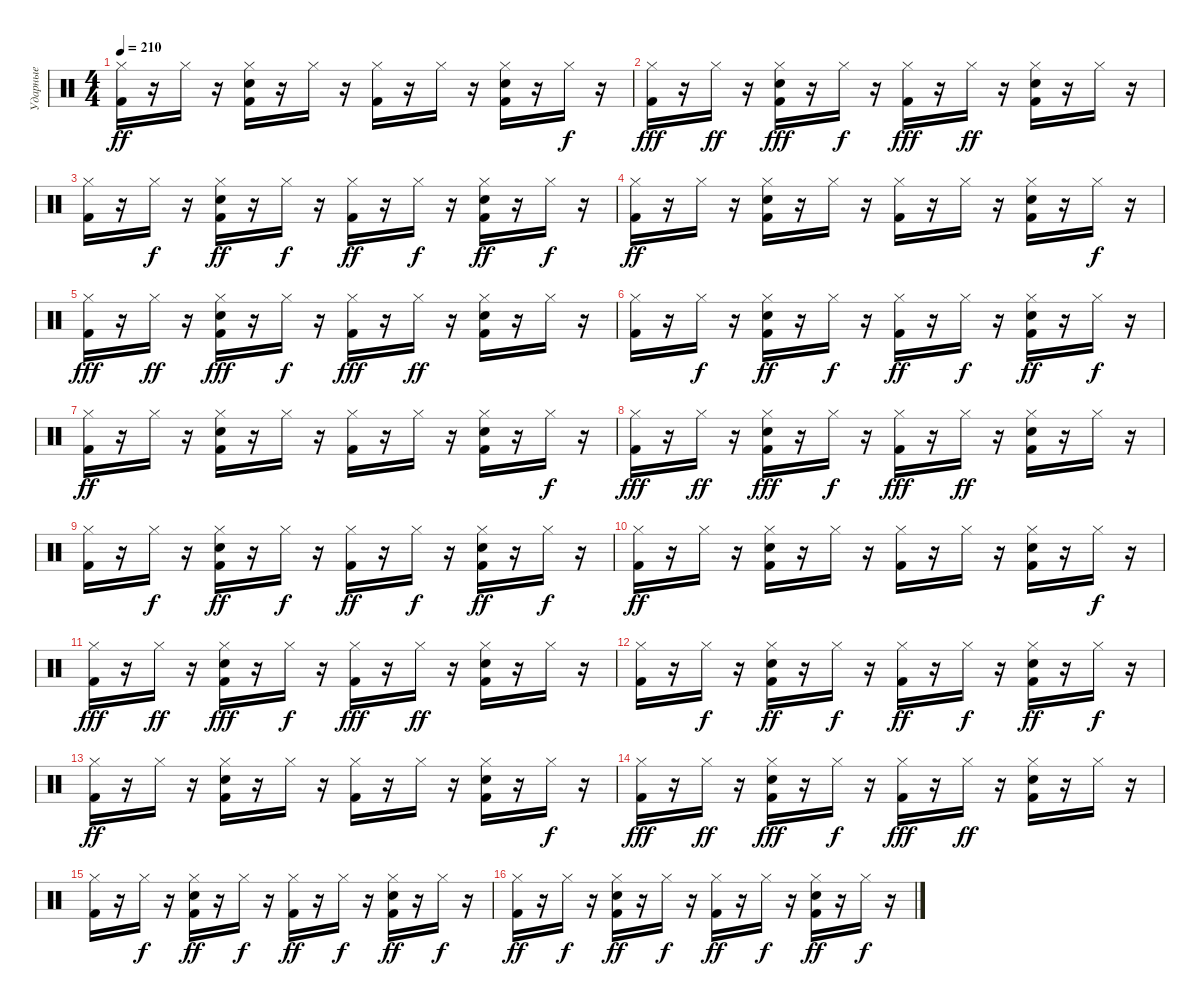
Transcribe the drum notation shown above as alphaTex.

\track ("Ударные" "Ударные") {instrument percussion}
\staff {score}
\articulation defaults
\ts (4 4)
\tempo 210
\clef neutral
\ks c
("Kick (hit) 2" "Hi-Hat (closed)").16{dy ff} r.16 "Hi-Hat (closed)".16 r.16 ("Kick (hit) 2" "Snare (hit) 2" "Hi-Hat (closed)").16 r.16 "Hi-Hat (closed)".16 r.16 ("Kick (hit) 2" "Hi-Hat (closed)").16 r.16 "Hi-Hat (closed)".16 r.16 ("Kick (hit) 2" "Snare (hit) 2" "Hi-Hat (closed)").16 r.16 "Hi-Hat (closed)".16{dy f} r.16 |
("Kick (hit) 2" "Hi-Hat (closed)").16{dy fff} r.16 "Hi-Hat (closed)".16{dy ff} r.16 ("Kick (hit) 2" "Snare (hit) 2" "Hi-Hat (closed)").16{dy fff} r.16 "Hi-Hat (closed)".16{dy f} r.16 ("Kick (hit) 2" "Hi-Hat (closed)").16{dy fff} r.16 "Hi-Hat (closed)".16{dy ff} r.16 ("Kick (hit) 2" "Snare (hit) 2" "Hi-Hat (closed)").16 r.16 "Hi-Hat (closed)".16 r.16 |
("Kick (hit) 2" "Hi-Hat (closed)").16 r.16 "Hi-Hat (closed)".16{dy f} r.16 ("Kick (hit) 2" "Snare (hit) 2" "Hi-Hat (closed)").16{dy ff} r.16 "Hi-Hat (closed)".16{dy f} r.16 ("Kick (hit) 2" "Hi-Hat (closed)").16{dy ff} r.16 "Hi-Hat (closed)".16{dy f} r.16 ("Kick (hit) 2" "Snare (hit) 2" "Hi-Hat (closed)").16{dy ff} r.16 "Hi-Hat (closed)".16{dy f} r.16 |
("Kick (hit) 2" "Hi-Hat (closed)").16{dy ff} r.16 "Hi-Hat (closed)".16 r.16 ("Kick (hit) 2" "Snare (hit) 2" "Hi-Hat (closed)").16 r.16 "Hi-Hat (closed)".16 r.16 ("Kick (hit) 2" "Hi-Hat (closed)").16 r.16 "Hi-Hat (closed)".16 r.16 ("Kick (hit) 2" "Snare (hit) 2" "Hi-Hat (closed)").16 r.16 "Hi-Hat (closed)".16{dy f} r.16 |
("Kick (hit) 2" "Hi-Hat (closed)").16{dy fff} r.16 "Hi-Hat (closed)".16{dy ff} r.16 ("Kick (hit) 2" "Snare (hit) 2" "Hi-Hat (closed)").16{dy fff} r.16 "Hi-Hat (closed)".16{dy f} r.16 ("Kick (hit) 2" "Hi-Hat (closed)").16{dy fff} r.16 "Hi-Hat (closed)".16{dy ff} r.16 ("Kick (hit) 2" "Snare (hit) 2" "Hi-Hat (closed)").16 r.16 "Hi-Hat (closed)".16 r.16 |
("Kick (hit) 2" "Hi-Hat (closed)").16 r.16 "Hi-Hat (closed)".16{dy f} r.16 ("Kick (hit) 2" "Snare (hit) 2" "Hi-Hat (closed)").16{dy ff} r.16 "Hi-Hat (closed)".16{dy f} r.16 ("Kick (hit) 2" "Hi-Hat (closed)").16{dy ff} r.16 "Hi-Hat (closed)".16{dy f} r.16 ("Kick (hit) 2" "Snare (hit) 2" "Hi-Hat (closed)").16{dy ff} r.16 "Hi-Hat (closed)".16{dy f} r.16 |
("Kick (hit) 2" "Hi-Hat (closed)").16{dy ff} r.16 "Hi-Hat (closed)".16 r.16 ("Kick (hit) 2" "Snare (hit) 2" "Hi-Hat (closed)").16 r.16 "Hi-Hat (closed)".16 r.16 ("Kick (hit) 2" "Hi-Hat (closed)").16 r.16 "Hi-Hat (closed)".16 r.16 ("Kick (hit) 2" "Snare (hit) 2" "Hi-Hat (closed)").16 r.16 "Hi-Hat (closed)".16{dy f} r.16 |
("Kick (hit) 2" "Hi-Hat (closed)").16{dy fff} r.16 "Hi-Hat (closed)".16{dy ff} r.16 ("Kick (hit) 2" "Snare (hit) 2" "Hi-Hat (closed)").16{dy fff} r.16 "Hi-Hat (closed)".16{dy f} r.16 ("Kick (hit) 2" "Hi-Hat (closed)").16{dy fff} r.16 "Hi-Hat (closed)".16{dy ff} r.16 ("Kick (hit) 2" "Snare (hit) 2" "Hi-Hat (closed)").16 r.16 "Hi-Hat (closed)".16 r.16 |
("Kick (hit) 2" "Hi-Hat (closed)").16 r.16 "Hi-Hat (closed)".16{dy f} r.16 ("Kick (hit) 2" "Snare (hit) 2" "Hi-Hat (closed)").16{dy ff} r.16 "Hi-Hat (closed)".16{dy f} r.16 ("Kick (hit) 2" "Hi-Hat (closed)").16{dy ff} r.16 "Hi-Hat (closed)".16{dy f} r.16 ("Kick (hit) 2" "Snare (hit) 2" "Hi-Hat (closed)").16{dy ff} r.16 "Hi-Hat (closed)".16{dy f} r.16 |
("Kick (hit) 2" "Hi-Hat (closed)").16{dy ff} r.16 "Hi-Hat (closed)".16 r.16 ("Kick (hit) 2" "Snare (hit) 2" "Hi-Hat (closed)").16 r.16 "Hi-Hat (closed)".16 r.16 ("Kick (hit) 2" "Hi-Hat (closed)").16 r.16 "Hi-Hat (closed)".16 r.16 ("Kick (hit) 2" "Snare (hit) 2" "Hi-Hat (closed)").16 r.16 "Hi-Hat (closed)".16{dy f} r.16 |
("Kick (hit) 2" "Hi-Hat (closed)").16{dy fff} r.16 "Hi-Hat (closed)".16{dy ff} r.16 ("Kick (hit) 2" "Snare (hit) 2" "Hi-Hat (closed)").16{dy fff} r.16 "Hi-Hat (closed)".16{dy f} r.16 ("Kick (hit) 2" "Hi-Hat (closed)").16{dy fff} r.16 "Hi-Hat (closed)".16{dy ff} r.16 ("Kick (hit) 2" "Snare (hit) 2" "Hi-Hat (closed)").16 r.16 "Hi-Hat (closed)".16 r.16 |
("Kick (hit) 2" "Hi-Hat (closed)").16 r.16 "Hi-Hat (closed)".16{dy f} r.16 ("Kick (hit) 2" "Snare (hit) 2" "Hi-Hat (closed)").16{dy ff} r.16 "Hi-Hat (closed)".16{dy f} r.16 ("Kick (hit) 2" "Hi-Hat (closed)").16{dy ff} r.16 "Hi-Hat (closed)".16{dy f} r.16 ("Kick (hit) 2" "Snare (hit) 2" "Hi-Hat (closed)").16{dy ff} r.16 "Hi-Hat (closed)".16{dy f} r.16 |
("Kick (hit) 2" "Hi-Hat (closed)").16{dy ff} r.16 "Hi-Hat (closed)".16 r.16 ("Kick (hit) 2" "Snare (hit) 2" "Hi-Hat (closed)").16 r.16 "Hi-Hat (closed)".16 r.16 ("Kick (hit) 2" "Hi-Hat (closed)").16 r.16 "Hi-Hat (closed)".16 r.16 ("Kick (hit) 2" "Snare (hit) 2" "Hi-Hat (closed)").16 r.16 "Hi-Hat (closed)".16{dy f} r.16 |
("Kick (hit) 2" "Hi-Hat (closed)").16{dy fff} r.16 "Hi-Hat (closed)".16{dy ff} r.16 ("Kick (hit) 2" "Snare (hit) 2" "Hi-Hat (closed)").16{dy fff} r.16 "Hi-Hat (closed)".16{dy f} r.16 ("Kick (hit) 2" "Hi-Hat (closed)").16{dy fff} r.16 "Hi-Hat (closed)".16{dy ff} r.16 ("Kick (hit) 2" "Snare (hit) 2" "Hi-Hat (closed)").16 r.16 "Hi-Hat (closed)".16 r.16 |
("Kick (hit) 2" "Hi-Hat (closed)").16 r.16 "Hi-Hat (closed)".16{dy f} r.16 ("Kick (hit) 2" "Snare (hit) 2" "Hi-Hat (closed)").16{dy ff} r.16 "Hi-Hat (closed)".16{dy f} r.16 ("Kick (hit) 2" "Hi-Hat (closed)").16{dy ff} r.16 "Hi-Hat (closed)".16{dy f} r.16 ("Kick (hit) 2" "Snare (hit) 2" "Hi-Hat (closed)").16{dy ff} r.16 "Hi-Hat (closed)".16{dy f} r.16 |
("Kick (hit) 2" "Hi-Hat (closed)").16{dy ff} r.16 "Hi-Hat (closed)".16{dy f} r.16 ("Kick (hit) 2" "Snare (hit) 2" "Hi-Hat (closed)").16{dy ff} r.16 "Hi-Hat (closed)".16{dy f} r.16 ("Kick (hit) 2" "Hi-Hat (closed)").16{dy ff} r.16 "Hi-Hat (closed)".16{dy f} r.16 ("Kick (hit) 2" "Snare (hit) 2" "Hi-Hat (closed)").16{dy ff} r.16 "Hi-Hat (closed)".16{dy f} r.16
